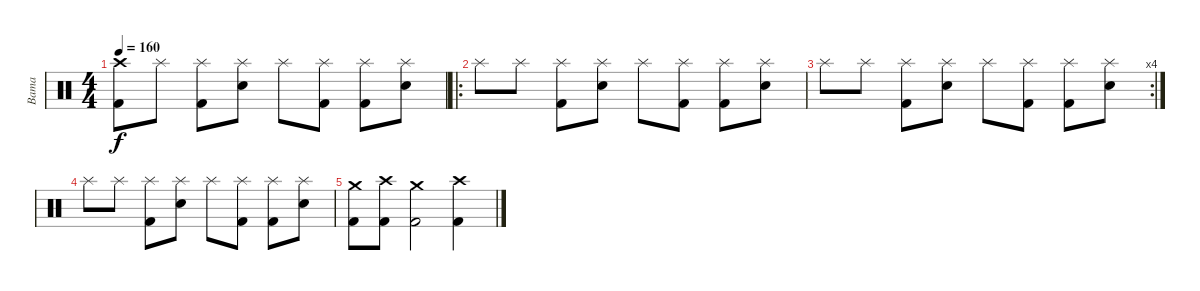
\track ("Bama" "Bama") {instrument percussion}
\staff {score}
\articulation defaults
\ts (4 4)
\tempo 160
\clef neutral
\ks c
("Crash high (hit)" "Kick (hit) 2").8{dy f} "Splash (hit)".8 ("Splash (hit)" "Kick (hit) 2").8 ("Splash (hit)" "Electric Snare (hit)").8 "Splash (hit)".8 ("Splash (hit)" "Kick (hit) 2").8 ("Splash (hit)" "Kick (hit) 2").8 ("Splash (hit)" "Electric Snare (hit)").8 |
\ro "Splash (hit)".8 "Splash (hit)".8
("Splash (hit)" "Kick (hit) 2").8 ("Splash (hit)" "Electric Snare (hit)").8 "Splash (hit)".8 ("Splash (hit)" "Kick (hit) 2").8 ("Splash (hit)" "Kick (hit) 2").8 ("Splash (hit)" "Electric Snare (hit)").8 |
\rc 4 "Splash (hit)".8 "Splash (hit)".8
("Splash (hit)" "Kick (hit) 2").8 ("Splash (hit)" "Electric Snare (hit)").8 "Splash (hit)".8 ("Splash (hit)" "Kick (hit) 2").8 ("Splash (hit)" "Kick (hit) 2").8 ("Splash (hit)" "Electric Snare (hit)").8 |
"Splash (hit)".8 "Splash (hit)".8 ("Splash (hit)" "Kick (hit) 2").8 ("Splash (hit)" "Electric Snare (hit)").8 "Splash (hit)".8 ("Splash (hit)" "Kick (hit) 2").8 ("Splash (hit)" "Kick (hit) 2").8 ("Splash (hit)" "Electric Snare (hit)").8 |
("Crash medium (hit)" "Kick (hit) 2").8 ("Crash high (hit)" "Kick (hit) 2").8 ("Crash medium (hit)" "Kick (hit) 2").2 ("Crash high (hit)" "Kick (hit) 2").4
